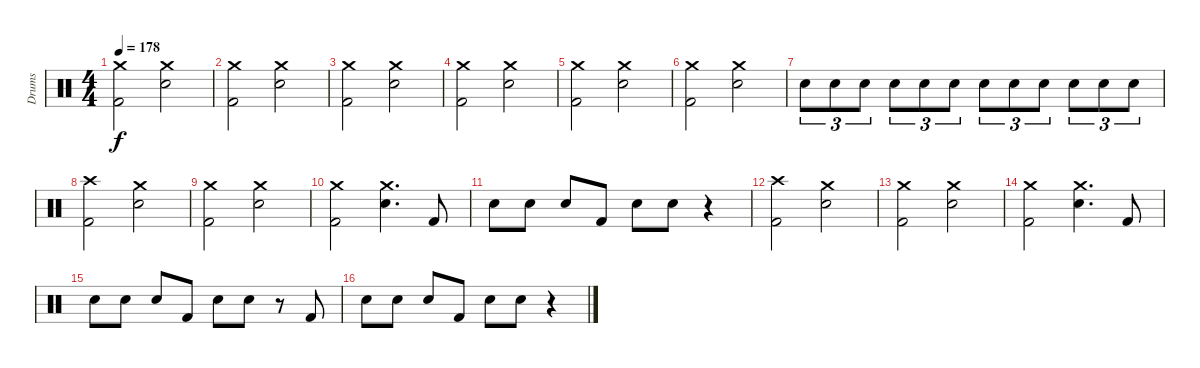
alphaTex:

\track ("Drums" "Drums") {instrument percussion}
\staff {score}
\articulation defaults
\ts (4 4)
\tempo 178
\clef neutral
\ks c
("Crash medium (hit)" "Kick (hit) 2").2{dy f} ("Crash medium (hit)" "Snare (hit) 2").2 |
("Crash medium (hit)" "Kick (hit) 2").2 ("Crash medium (hit)" "Snare (hit) 2").2 |
("Crash medium (hit)" "Kick (hit) 2").2 ("Crash medium (hit)" "Snare (hit) 2").2 |
("Crash medium (hit)" "Kick (hit) 2").2 ("Crash medium (hit)" "Snare (hit) 2").2 |
("Crash medium (hit)" "Kick (hit) 2").2 ("Crash medium (hit)" "Snare (hit) 2").2 |
("Crash medium (hit)" "Kick (hit) 2").2 ("Crash medium (hit)" "Snare (hit) 2").2 |
"Snare (hit) 2".8{tu (3 2)} "Snare (hit) 2".8{tu (3 2)} "Snare (hit) 2".8{tu (3 2)} "Snare (hit) 2".8{tu (3 2)} "Snare (hit) 2".8{tu (3 2)} "Snare (hit) 2".8{tu (3 2)} "Snare (hit) 2".8{tu (3 2)} "Snare (hit) 2".8{tu (3 2)} "Snare (hit) 2".8{tu (3 2)} "Snare (hit) 2".8{tu (3 2)} "Snare (hit) 2".8{tu (3 2)} "Snare (hit) 2".8{tu (3 2)} |
("Crash high (hit)" "Kick (hit) 2").2 ("Crash medium (hit)" "Snare (hit) 2").2 |
("Crash medium (hit)" "Kick (hit) 2").2 ("Crash medium (hit)" "Snare (hit) 2").2 |
("Crash medium (hit)" "Kick (hit) 2").2 ("Crash medium (hit)" "Snare (hit) 2").4{d} "Kick (hit) 2".8 |
"Snare (hit) 2".8 "Snare (hit) 2".8 "Snare (hit) 2".8 "Kick (hit) 2".8 "Snare (hit) 2".8 "Snare (hit) 2".8 r.4 |
("Crash high (hit)" "Kick (hit) 2").2 ("Crash medium (hit)" "Snare (hit) 2").2 |
("Crash medium (hit)" "Kick (hit) 2").2 ("Crash medium (hit)" "Snare (hit) 2").2 |
("Crash medium (hit)" "Kick (hit) 2").2 ("Crash medium (hit)" "Snare (hit) 2").4{d} "Kick (hit) 2".8 |
"Snare (hit) 2".8 "Snare (hit) 2".8 "Snare (hit) 2".8 "Kick (hit) 2".8 "Snare (hit) 2".8 "Snare (hit) 2".8 r.8 "Kick (hit) 2".8 |
"Snare (hit) 2".8 "Snare (hit) 2".8 "Snare (hit) 2".8 "Kick (hit) 2".8 "Snare (hit) 2".8 "Snare (hit) 2".8 r.4
